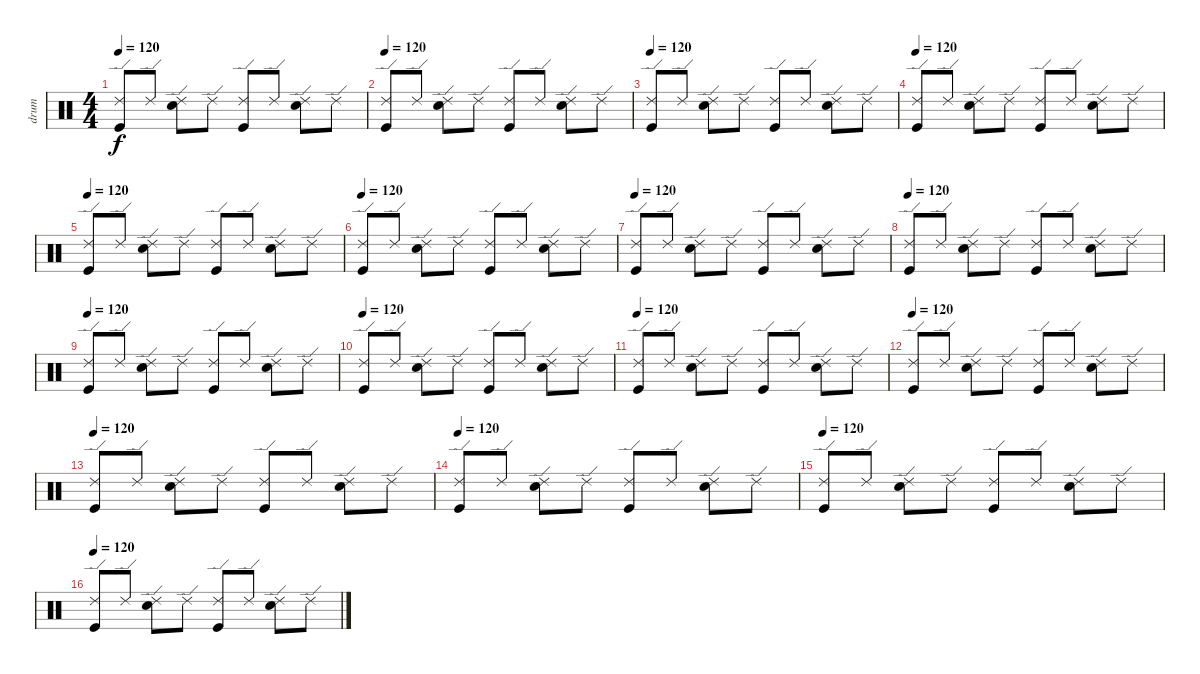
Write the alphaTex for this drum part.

\track ("drum" "drum") {instrument percussion}
\staff {score}
\articulation defaults
\ts (4 4)
\tempo 120
\clef neutral
\ks c
("Kick (hit)" "Ride (edge) 2").8{dy f} "Ride (edge) 2".8 ("Ride (edge) 2" "Electric Snare (hit)").8 "Ride (edge) 2".8 ("Kick (hit)" "Ride (edge) 2").8 "Ride (edge) 2".8 ("Electric Snare (hit)" "Ride (edge) 2").8 "Ride (edge) 2".8 |
\tempo 120
("Kick (hit)" "Ride (edge) 2").8 "Ride (edge) 2".8 ("Ride (edge) 2" "Electric Snare (hit)").8 "Ride (edge) 2".8 ("Kick (hit)" "Ride (edge) 2").8 "Ride (edge) 2".8 ("Electric Snare (hit)" "Ride (edge) 2").8 "Ride (edge) 2".8 |
\tempo 120
("Kick (hit)" "Ride (edge) 2").8 "Ride (edge) 2".8 ("Ride (edge) 2" "Electric Snare (hit)").8 "Ride (edge) 2".8 ("Kick (hit)" "Ride (edge) 2").8 "Ride (edge) 2".8 ("Electric Snare (hit)" "Ride (edge) 2").8 "Ride (edge) 2".8 |
\tempo 120
("Kick (hit)" "Ride (edge) 2").8 "Ride (edge) 2".8 ("Ride (edge) 2" "Electric Snare (hit)").8 "Ride (edge) 2".8 ("Kick (hit)" "Ride (edge) 2").8 "Ride (edge) 2".8 ("Electric Snare (hit)" "Ride (edge) 2").8 "Ride (edge) 2".8 |
\tempo 120
("Kick (hit)" "Ride (edge) 2").8 "Ride (edge) 2".8 ("Ride (edge) 2" "Electric Snare (hit)").8 "Ride (edge) 2".8 ("Kick (hit)" "Ride (edge) 2").8 "Ride (edge) 2".8 ("Electric Snare (hit)" "Ride (edge) 2").8 "Ride (edge) 2".8 |
\tempo 120
("Kick (hit)" "Ride (edge) 2").8 "Ride (edge) 2".8 ("Ride (edge) 2" "Electric Snare (hit)").8 "Ride (edge) 2".8 ("Kick (hit)" "Ride (edge) 2").8 "Ride (edge) 2".8 ("Electric Snare (hit)" "Ride (edge) 2").8 "Ride (edge) 2".8 |
\tempo 120
("Kick (hit)" "Ride (edge) 2").8 "Ride (edge) 2".8 ("Ride (edge) 2" "Electric Snare (hit)").8 "Ride (edge) 2".8 ("Kick (hit)" "Ride (edge) 2").8 "Ride (edge) 2".8 ("Electric Snare (hit)" "Ride (edge) 2").8 "Ride (edge) 2".8 |
\tempo 120
("Kick (hit)" "Ride (edge) 2").8 "Ride (edge) 2".8 ("Ride (edge) 2" "Electric Snare (hit)").8 "Ride (edge) 2".8 ("Kick (hit)" "Ride (edge) 2").8 "Ride (edge) 2".8 ("Electric Snare (hit)" "Ride (edge) 2").8 "Ride (edge) 2".8 |
\tempo 120
("Kick (hit)" "Ride (edge) 2").8 "Ride (edge) 2".8 ("Ride (edge) 2" "Electric Snare (hit)").8 "Ride (edge) 2".8 ("Kick (hit)" "Ride (edge) 2").8 "Ride (edge) 2".8 ("Electric Snare (hit)" "Ride (edge) 2").8 "Ride (edge) 2".8 |
\tempo 120
("Kick (hit)" "Ride (edge) 2").8 "Ride (edge) 2".8 ("Ride (edge) 2" "Electric Snare (hit)").8 "Ride (edge) 2".8 ("Kick (hit)" "Ride (edge) 2").8 "Ride (edge) 2".8 ("Electric Snare (hit)" "Ride (edge) 2").8 "Ride (edge) 2".8 |
\tempo 120
("Kick (hit)" "Ride (edge) 2").8 "Ride (edge) 2".8 ("Ride (edge) 2" "Electric Snare (hit)").8 "Ride (edge) 2".8 ("Kick (hit)" "Ride (edge) 2").8 "Ride (edge) 2".8 ("Electric Snare (hit)" "Ride (edge) 2").8 "Ride (edge) 2".8 |
\tempo 120
("Kick (hit)" "Ride (edge) 2").8 "Ride (edge) 2".8 ("Ride (edge) 2" "Electric Snare (hit)").8 "Ride (edge) 2".8 ("Kick (hit)" "Ride (edge) 2").8 "Ride (edge) 2".8 ("Electric Snare (hit)" "Ride (edge) 2").8 "Ride (edge) 2".8 |
\tempo 120
("Kick (hit)" "Ride (edge) 2").8 "Ride (edge) 2".8 ("Ride (edge) 2" "Electric Snare (hit)").8 "Ride (edge) 2".8 ("Kick (hit)" "Ride (edge) 2").8 "Ride (edge) 2".8 ("Electric Snare (hit)" "Ride (edge) 2").8 "Ride (edge) 2".8 |
\tempo 120
("Kick (hit)" "Ride (edge) 2").8 "Ride (edge) 2".8 ("Ride (edge) 2" "Electric Snare (hit)").8 "Ride (edge) 2".8 ("Kick (hit)" "Ride (edge) 2").8 "Ride (edge) 2".8 ("Electric Snare (hit)" "Ride (edge) 2").8 "Ride (edge) 2".8 |
\tempo 120
("Kick (hit)" "Ride (edge) 2").8 "Ride (edge) 2".8 ("Ride (edge) 2" "Electric Snare (hit)").8 "Ride (edge) 2".8 ("Kick (hit)" "Ride (edge) 2").8 "Ride (edge) 2".8 ("Electric Snare (hit)" "Ride (edge) 2").8 "Ride (edge) 2".8 |
\tempo 120
("Kick (hit)" "Ride (edge) 2").8 "Ride (edge) 2".8 ("Ride (edge) 2" "Electric Snare (hit)").8 "Ride (edge) 2".8 ("Kick (hit)" "Ride (edge) 2").8 "Ride (edge) 2".8 ("Electric Snare (hit)" "Ride (edge) 2").8 "Ride (edge) 2".8
